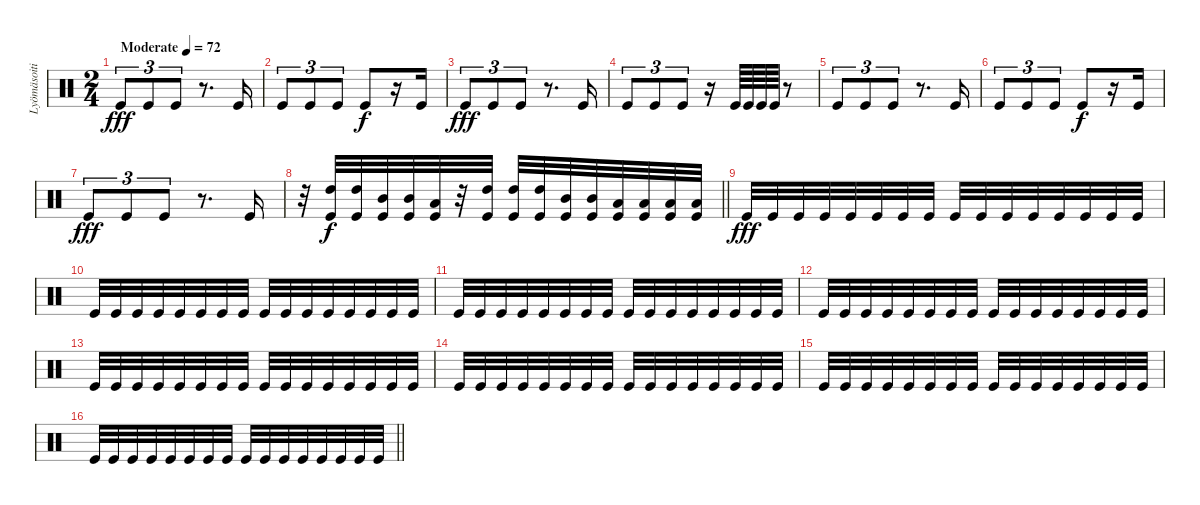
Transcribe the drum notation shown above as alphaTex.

\track ("Lyömäsoitin" "Lyömäsoiti") {instrument percussion}
\staff {score}
\articulation defaults
\ts (2 4)
\tempo (72 "Moderate")
\clef neutral
\ks c "Kick (hit)".8{tu (3 2) dy fff} "Kick (hit)".8{tu (3 2)} "Kick (hit)".8{tu (3 2)}
r.8{d} "Kick (hit)".16 |
"Kick (hit)".8{tu (3 2)} "Kick (hit)".8{tu (3 2)} "Kick (hit)".8{tu (3 2)} "Kick (hit)".8{dy f} r.16 "Kick (hit)".16 |
"Kick (hit)".8{tu (3 2) dy fff} "Kick (hit)".8{tu (3 2)} "Kick (hit)".8{tu (3 2)} r.8{d} "Kick (hit)".16 |
"Kick (hit)".8{tu (3 2)} "Kick (hit)".8{tu (3 2)} "Kick (hit)".8{tu (3 2)} r.16 "Kick (hit)".64 "Kick (hit)".64 "Kick (hit)".64 "Kick (hit)".64 r.8 |
"Kick (hit)".8{tu (3 2)} "Kick (hit)".8{tu (3 2)} "Kick (hit)".8{tu (3 2)} r.8{d} "Kick (hit)".16 |
"Kick (hit)".8{tu (3 2)} "Kick (hit)".8{tu (3 2)} "Kick (hit)".8{tu (3 2)} "Kick (hit)".8{dy f} r.16 "Kick (hit)".16 |
"Kick (hit)".8{tu (3 2) dy fff} "Kick (hit)".8{tu (3 2)} "Kick (hit)".8{tu (3 2)} r.8{d} "Kick (hit)".16 |
\barLineRight lightlight
r.32 ("High Tom (hit)" "Kick (hit)").32{dy f} ("High Tom (hit)" "Kick (hit)").32 ("Mid Tom (hit)" "Kick (hit)").32 ("Mid Tom (hit)" "Kick (hit)").32 ("Low Floor Tom (hit)" "Kick (hit)").32 r.32 ("High Tom (hit)" "Kick (hit)").32 ("High Tom (hit)" "Kick (hit)").32 ("High Tom (hit)" "Kick (hit)").32 ("Mid Tom (hit)" "Kick (hit)").32 ("Mid Tom (hit)" "Kick (hit)").32 ("Low Tom (hit)" "Kick (hit)").32 ("Low Tom (hit)" "Kick (hit)").32 ("Low Floor Tom (hit)" "Kick (hit)").32 ("Low Floor Tom (hit)" "Kick (hit)").32 |
"Kick (hit)".32{dy fff} "Kick (hit)".32 "Kick (hit)".32 "Kick (hit)".32 "Kick (hit)".32 "Kick (hit)".32 "Kick (hit)".32 "Kick (hit)".32 "Kick (hit)".32 "Kick (hit)".32 "Kick (hit)".32 "Kick (hit)".32 "Kick (hit)".32 "Kick (hit)".32 "Kick (hit)".32 "Kick (hit)".32 |
"Kick (hit)".32 "Kick (hit)".32 "Kick (hit)".32 "Kick (hit)".32 "Kick (hit)".32 "Kick (hit)".32 "Kick (hit)".32 "Kick (hit)".32 "Kick (hit)".32 "Kick (hit)".32 "Kick (hit)".32 "Kick (hit)".32 "Kick (hit)".32 "Kick (hit)".32 "Kick (hit)".32 "Kick (hit)".32 |
"Kick (hit)".32 "Kick (hit)".32 "Kick (hit)".32 "Kick (hit)".32 "Kick (hit)".32 "Kick (hit)".32 "Kick (hit)".32 "Kick (hit)".32 "Kick (hit)".32 "Kick (hit)".32 "Kick (hit)".32 "Kick (hit)".32 "Kick (hit)".32 "Kick (hit)".32 "Kick (hit)".32 "Kick (hit)".32 |
"Kick (hit)".32 "Kick (hit)".32 "Kick (hit)".32 "Kick (hit)".32 "Kick (hit)".32 "Kick (hit)".32 "Kick (hit)".32 "Kick (hit)".32 "Kick (hit)".32 "Kick (hit)".32 "Kick (hit)".32 "Kick (hit)".32 "Kick (hit)".32 "Kick (hit)".32 "Kick (hit)".32 "Kick (hit)".32 |
"Kick (hit)".32 "Kick (hit)".32 "Kick (hit)".32 "Kick (hit)".32 "Kick (hit)".32 "Kick (hit)".32 "Kick (hit)".32 "Kick (hit)".32 "Kick (hit)".32 "Kick (hit)".32 "Kick (hit)".32 "Kick (hit)".32 "Kick (hit)".32 "Kick (hit)".32 "Kick (hit)".32 "Kick (hit)".32 |
"Kick (hit)".32 "Kick (hit)".32 "Kick (hit)".32 "Kick (hit)".32 "Kick (hit)".32 "Kick (hit)".32 "Kick (hit)".32 "Kick (hit)".32 "Kick (hit)".32 "Kick (hit)".32 "Kick (hit)".32 "Kick (hit)".32 "Kick (hit)".32 "Kick (hit)".32 "Kick (hit)".32 "Kick (hit)".32 |
"Kick (hit)".32 "Kick (hit)".32 "Kick (hit)".32 "Kick (hit)".32 "Kick (hit)".32 "Kick (hit)".32 "Kick (hit)".32 "Kick (hit)".32 "Kick (hit)".32 "Kick (hit)".32 "Kick (hit)".32 "Kick (hit)".32 "Kick (hit)".32 "Kick (hit)".32 "Kick (hit)".32 "Kick (hit)".32 |
\barLineRight lightlight "Kick (hit)".32 "Kick (hit)".32 "Kick (hit)".32 "Kick (hit)".32 "Kick (hit)".32 "Kick (hit)".32 "Kick (hit)".32 "Kick (hit)".32 "Kick (hit)".32 "Kick (hit)".32 "Kick (hit)".32 "Kick (hit)".32 "Kick (hit)".32 "Kick (hit)".32 "Kick (hit)".32 "Kick (hit)".32
